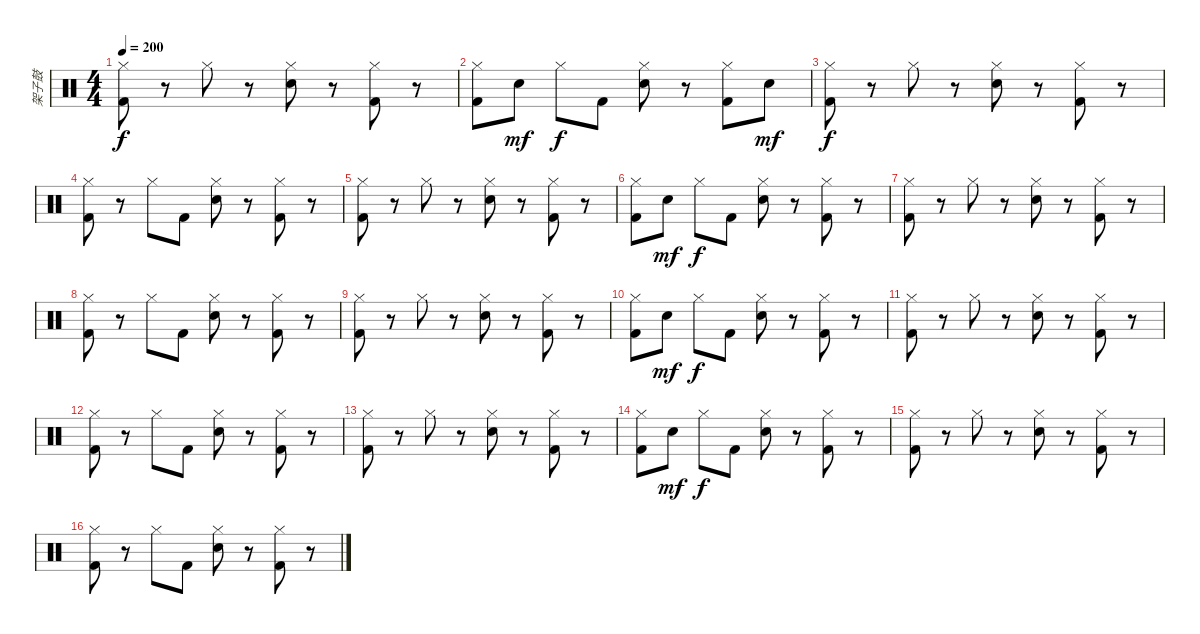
\track ("架子鼓" "架子鼓") {instrument percussion}
\staff {score}
\articulation defaults
\ts (4 4)
\tempo 200
\clef neutral
\ks c
("Kick (hit) 2" "Hi-Hat (closed)").8{dy f} r.8 "Hi-Hat (closed)".8 r.8 ("Snare (hit) 2" "Hi-Hat (closed)").8 r.8 ("Hi-Hat (closed)" "Kick (hit) 2").8 r.8 |
("Kick (hit) 2" "Hi-Hat (closed)").8 "Snare (hit) 2".8{dy mf} "Hi-Hat (closed)".8{dy f} "Kick (hit) 2".8 ("Snare (hit) 2" "Hi-Hat (closed)").8 r.8 ("Kick (hit) 2" "Hi-Hat (closed)").8 "Snare (hit) 2".8{dy mf} |
("Kick (hit) 2" "Hi-Hat (closed)").8{dy f} r.8 "Hi-Hat (closed)".8 r.8 ("Snare (hit) 2" "Hi-Hat (closed)").8 r.8 ("Hi-Hat (closed)" "Kick (hit) 2").8 r.8 |
("Kick (hit) 2" "Hi-Hat (closed)").8 r.8 "Hi-Hat (closed)".8 "Kick (hit) 2".8 ("Snare (hit) 2" "Hi-Hat (closed)").8 r.8 ("Kick (hit) 2" "Hi-Hat (closed)").8 r.8 |
("Kick (hit) 2" "Hi-Hat (closed)").8 r.8 "Hi-Hat (closed)".8 r.8 ("Snare (hit) 2" "Hi-Hat (closed)").8 r.8 ("Hi-Hat (closed)" "Kick (hit) 2").8 r.8 |
("Kick (hit) 2" "Hi-Hat (closed)").8 "Snare (hit) 2".8{dy mf} "Hi-Hat (closed)".8{dy f} "Kick (hit) 2".8 ("Snare (hit) 2" "Hi-Hat (closed)").8 r.8 ("Kick (hit) 2" "Hi-Hat (closed)").8 r.8 |
("Kick (hit) 2" "Hi-Hat (closed)").8 r.8 "Hi-Hat (closed)".8 r.8 ("Snare (hit) 2" "Hi-Hat (closed)").8 r.8 ("Hi-Hat (closed)" "Kick (hit) 2").8 r.8 |
("Kick (hit) 2" "Hi-Hat (closed)").8 r.8 "Hi-Hat (closed)".8 "Kick (hit) 2".8 ("Snare (hit) 2" "Hi-Hat (closed)").8 r.8 ("Kick (hit) 2" "Hi-Hat (closed)").8 r.8 |
("Kick (hit) 2" "Hi-Hat (closed)").8 r.8 "Hi-Hat (closed)".8 r.8 ("Snare (hit) 2" "Hi-Hat (closed)").8 r.8 ("Hi-Hat (closed)" "Kick (hit) 2").8 r.8 |
("Kick (hit) 2" "Hi-Hat (closed)").8 "Snare (hit) 2".8{dy mf} "Hi-Hat (closed)".8{dy f} "Kick (hit) 2".8 ("Snare (hit) 2" "Hi-Hat (closed)").8 r.8 ("Kick (hit) 2" "Hi-Hat (closed)").8 r.8 |
("Kick (hit) 2" "Hi-Hat (closed)").8 r.8 "Hi-Hat (closed)".8 r.8 ("Snare (hit) 2" "Hi-Hat (closed)").8 r.8 ("Hi-Hat (closed)" "Kick (hit) 2").8 r.8 |
("Kick (hit) 2" "Hi-Hat (closed)").8 r.8 "Hi-Hat (closed)".8 "Kick (hit) 2".8 ("Snare (hit) 2" "Hi-Hat (closed)").8 r.8 ("Kick (hit) 2" "Hi-Hat (closed)").8 r.8 |
("Kick (hit) 2" "Hi-Hat (closed)").8 r.8 "Hi-Hat (closed)".8 r.8 ("Snare (hit) 2" "Hi-Hat (closed)").8 r.8 ("Hi-Hat (closed)" "Kick (hit) 2").8 r.8 |
("Kick (hit) 2" "Hi-Hat (closed)").8 "Snare (hit) 2".8{dy mf} "Hi-Hat (closed)".8{dy f} "Kick (hit) 2".8 ("Snare (hit) 2" "Hi-Hat (closed)").8 r.8 ("Kick (hit) 2" "Hi-Hat (closed)").8 r.8 |
("Kick (hit) 2" "Hi-Hat (closed)").8 r.8 "Hi-Hat (closed)".8 r.8 ("Snare (hit) 2" "Hi-Hat (closed)").8 r.8 ("Hi-Hat (closed)" "Kick (hit) 2").8 r.8 |
("Kick (hit) 2" "Hi-Hat (closed)").8 r.8 "Hi-Hat (closed)".8 "Kick (hit) 2".8 ("Snare (hit) 2" "Hi-Hat (closed)").8 r.8 ("Kick (hit) 2" "Hi-Hat (closed)").8 r.8
